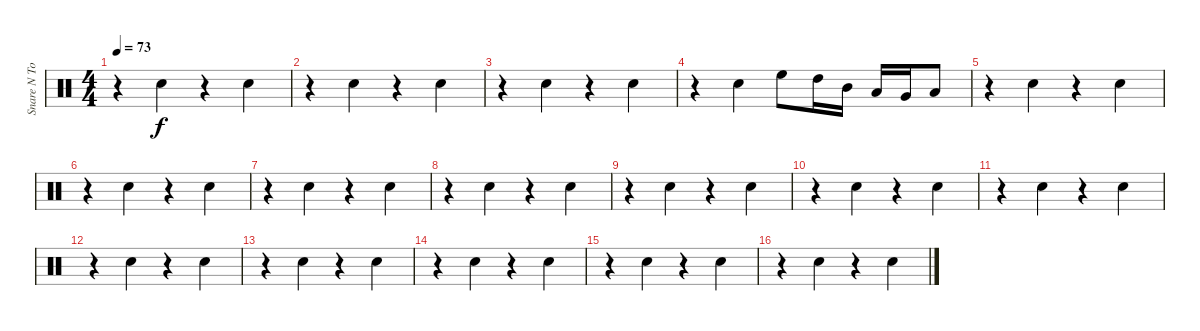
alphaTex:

\track ("Snare N Toms" "Snare N To") {instrument percussion}
\staff {score}
\articulation defaults
\ts (4 4)
\tempo 73
\clef neutral
\ks c
r.4{dy f} "Snare (hit) 2".4 r.4 "Snare (hit) 2".4 |
r.4 "Snare (hit) 2".4 r.4 "Snare (hit) 2".4 |
r.4 "Snare (hit) 2".4 r.4 "Snare (hit) 2".4 |
r.4 "Snare (hit) 2".4 "High Floor Tom (hit)".8 "High Tom (hit)".16 "Mid Tom (hit)".16 "Low Tom (hit)".16 "Very Low Tom (hit)".16 "Low Floor Tom (hit)".8 |
r.4 "Snare (hit) 2".4 r.4 "Snare (hit) 2".4 |
r.4 "Snare (hit) 2".4 r.4 "Snare (hit) 2".4 |
r.4 "Snare (hit) 2".4 r.4 "Snare (hit) 2".4 |
r.4 "Snare (hit) 2".4 r.4 "Snare (hit) 2".4 |
r.4 "Snare (hit) 2".4 r.4 "Snare (hit) 2".4 |
r.4 "Snare (hit) 2".4 r.4 "Snare (hit) 2".4 |
r.4 "Snare (hit) 2".4 r.4 "Snare (hit) 2".4 |
r.4 "Snare (hit) 2".4 r.4 "Snare (hit) 2".4 |
r.4 "Snare (hit) 2".4 r.4 "Snare (hit) 2".4 |
r.4{volume 5} "Snare (hit) 2".4 r.4 "Snare (hit) 2".4 |
r.4 "Snare (hit) 2".4 r.4 "Snare (hit) 2".4 |
r.4 "Snare (hit) 2".4 r.4 "Snare (hit) 2".4
